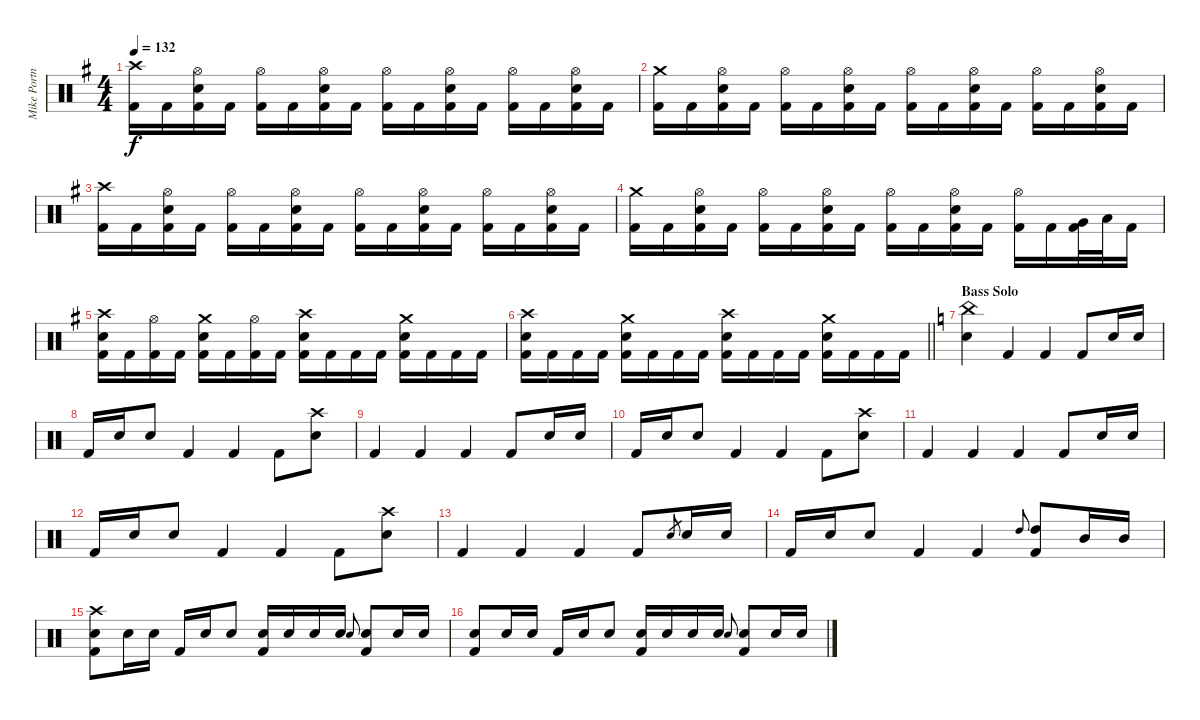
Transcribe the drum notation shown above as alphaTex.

\track ("Mike Portnoy" "Mike Portn") {instrument percussion}
\staff {score}
\articulation defaults
\ts (4 4)
\tempo 132
\clef neutral
\ks g
("Crash high (hit)" "Kick (hit) 2").16{dy f} "Kick (hit) 2".16 ("Hi-Hat (open)" "Electric Snare (hit)" "Kick (hit) 2").16 "Kick (hit) 2".16 ("Hi-Hat (open)" "Kick (hit) 2").16 "Kick (hit) 2".16 ("Hi-Hat (open)" "Electric Snare (hit)" "Kick (hit) 2").16 "Kick (hit) 2".16 ("Hi-Hat (open)" "Kick (hit) 2").16 "Kick (hit) 2".16 ("Hi-Hat (open)" "Electric Snare (hit)" "Kick (hit) 2").16 "Kick (hit) 2".16 ("Hi-Hat (open)" "Kick (hit) 2").16 "Kick (hit) 2".16 ("Hi-Hat (open)" "Electric Snare (hit)" "Kick (hit) 2").16 "Kick (hit) 2".16 |
("Crash medium (hit)" "Kick (hit) 2").16 "Kick (hit) 2".16 ("Hi-Hat (open)" "Electric Snare (hit)" "Kick (hit) 2").16 "Kick (hit) 2".16 ("Hi-Hat (open)" "Kick (hit) 2").16 "Kick (hit) 2".16 ("Hi-Hat (open)" "Electric Snare (hit)" "Kick (hit) 2").16 "Kick (hit) 2".16 ("Hi-Hat (open)" "Kick (hit) 2").16 "Kick (hit) 2".16 ("Hi-Hat (open)" "Electric Snare (hit)" "Kick (hit) 2").16 "Kick (hit) 2".16 ("Hi-Hat (open)" "Kick (hit) 2").16 "Kick (hit) 2".16 ("Hi-Hat (open)" "Electric Snare (hit)" "Kick (hit) 2").16 "Kick (hit) 2".16 |
("Crash high (hit)" "Kick (hit) 2").16 "Kick (hit) 2".16 ("Hi-Hat (open)" "Electric Snare (hit)" "Kick (hit) 2").16 "Kick (hit) 2".16 ("Hi-Hat (open)" "Kick (hit) 2").16 "Kick (hit) 2".16 ("Hi-Hat (open)" "Electric Snare (hit)" "Kick (hit) 2").16 "Kick (hit) 2".16 ("Hi-Hat (open)" "Kick (hit) 2").16 "Kick (hit) 2".16 ("Hi-Hat (open)" "Electric Snare (hit)" "Kick (hit) 2").16 "Kick (hit) 2".16 ("Hi-Hat (open)" "Kick (hit) 2").16 "Kick (hit) 2".16 ("Hi-Hat (open)" "Electric Snare (hit)" "Kick (hit) 2").16 "Kick (hit) 2".16 |
("Crash medium (hit)" "Kick (hit) 2").16 "Kick (hit) 2".16 ("Hi-Hat (open)" "Electric Snare (hit)" "Kick (hit) 2").16 "Kick (hit) 2".16 ("Hi-Hat (open)" "Kick (hit) 2").16 "Kick (hit) 2".16 ("Hi-Hat (open)" "Electric Snare (hit)" "Kick (hit) 2").16 "Kick (hit) 2".16 ("Hi-Hat (open)" "Kick (hit) 2").16 "Kick (hit) 2".16 ("Hi-Hat (open)" "Electric Snare (hit)" "Kick (hit) 2").16 "Kick (hit) 2".16 ("Hi-Hat (open)" "Kick (hit) 2").16 "Kick (hit) 2".16 ("Very Low Tom (hit)" "Kick (hit) 2").32 "Low Tom (hit)".32 "Kick (hit) 2".16 |
("Crash high (hit)" "Electric Snare (hit)" "Kick (hit) 2").16 "Kick (hit) 2".16 ("Hi-Hat (open)" "Kick (hit) 2").16 "Kick (hit) 2".16 ("Crash medium (hit)" "Electric Snare (hit)" "Kick (hit) 2").16 "Kick (hit) 2".16 ("Hi-Hat (open)" "Kick (hit) 2").16 "Kick (hit) 2".16 ("Crash high (hit)" "Electric Snare (hit)" "Kick (hit) 2").16 "Kick (hit) 2".16 "Kick (hit) 2".16 "Kick (hit) 2".16 ("Crash medium (hit)" "Electric Snare (hit)" "Kick (hit) 2").16 "Kick (hit) 2".16 "Kick (hit) 2".16 "Kick (hit) 2".16 |
\barLineRight lightlight
("Crash high (hit)" "Electric Snare (hit)" "Kick (hit) 2").16 "Kick (hit) 2".16 "Kick (hit) 2".16 "Kick (hit) 2".16 ("Crash medium (hit)" "Electric Snare (hit)" "Kick (hit) 2").16 "Kick (hit) 2".16 "Kick (hit) 2".16 "Kick (hit) 2".16 ("Crash high (hit)" "Electric Snare (hit)" "Kick (hit) 2").16 "Kick (hit) 2".16 "Kick (hit) 2".16 "Kick (hit) 2".16 ("Crash medium (hit)" "Electric Snare (hit)" "Kick (hit) 2").16 "Kick (hit) 2".16 "Kick (hit) 2".16 "Kick (hit) 2".16 |
\section ("" "Bass Solo")
\ks c
("China (hit)" "Electric Snare (hit)").4 "Kick (hit) 2".4 "Kick (hit) 2".4 "Kick (hit) 2".8 "Electric Snare (hit)".16 "Electric Snare (hit)".16 |
"Kick (hit) 2".16 "Electric Snare (hit)".16 "Electric Snare (hit)".8 "Kick (hit) 2".4 "Kick (hit) 2".4 "Kick (hit) 2".8 ("Crash high (hit)" "Electric Snare (hit)").8 |
"Kick (hit) 2".4 "Kick (hit) 2".4 "Kick (hit) 2".4 "Kick (hit) 2".8 "Electric Snare (hit)".16 "Electric Snare (hit)".16 |
"Kick (hit) 2".16 "Electric Snare (hit)".16 "Electric Snare (hit)".8 "Kick (hit) 2".4 "Kick (hit) 2".4 "Kick (hit) 2".8 ("Crash high (hit)" "Electric Snare (hit)").8 |
"Kick (hit) 2".4 "Kick (hit) 2".4 "Kick (hit) 2".4 "Kick (hit) 2".8 "Electric Snare (hit)".16 "Electric Snare (hit)".16 |
"Kick (hit) 2".16 "Electric Snare (hit)".16 "Electric Snare (hit)".8 "Kick (hit) 2".4 "Kick (hit) 2".4 "Kick (hit) 2".8 ("Crash high (hit)" "Electric Snare (hit)").8 |
"Kick (hit) 2".4 "Kick (hit) 2".4 "Kick (hit) 2".4 "Kick (hit) 2".8 "Electric Snare (hit)".8{gr} "Electric Snare (hit)".16 "Electric Snare (hit)".16 |
"Kick (hit) 2".16 "Electric Snare (hit)".16 "Electric Snare (hit)".8 "Kick (hit) 2".4 "Kick (hit) 2".4 "High Tom (hit)".8{gr onbeat} ("High Tom (hit)" "Kick (hit) 2").8 "Mid Tom (hit)".16 "Mid Tom (hit)".16 |
("Crash high (hit)" "Electric Snare (hit)" "Kick (hit) 2").8 "Electric Snare (hit)".16 "Electric Snare (hit)".16 "Kick (hit) 2".16 "Electric Snare (hit)".16 "Electric Snare (hit)".8 ("Electric Snare (hit)" "Kick (hit) 2").16 "Electric Snare (hit)".16 "Electric Snare (hit)".16 "Electric Snare (hit)".16 "Electric Snare (hit)".8{gr onbeat} ("Electric Snare (hit)" "Kick (hit) 2").8 "Electric Snare (hit)".16 "Electric Snare (hit)".16 |
("Electric Snare (hit)" "Kick (hit) 2").8 "Electric Snare (hit)".16 "Electric Snare (hit)".16 "Kick (hit) 2".16 "Electric Snare (hit)".16 "Electric Snare (hit)".8 ("Electric Snare (hit)" "Kick (hit) 2").16 "Electric Snare (hit)".16 "Electric Snare (hit)".16 "Electric Snare (hit)".16 "Electric Snare (hit)".8{gr onbeat} ("Electric Snare (hit)" "Kick (hit) 2").8 "Electric Snare (hit)".16 "Electric Snare (hit)".16
